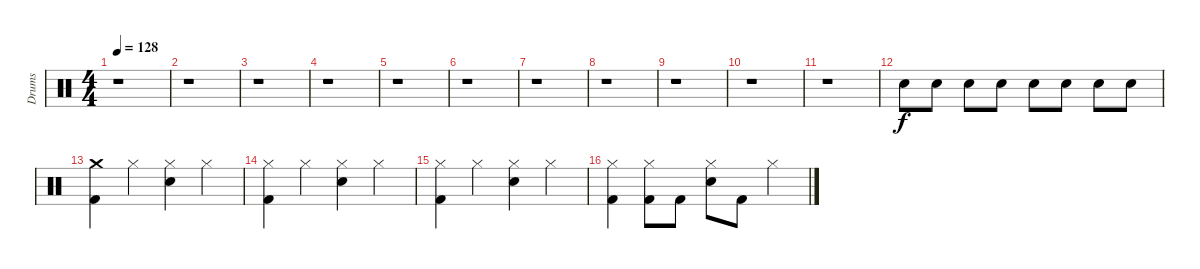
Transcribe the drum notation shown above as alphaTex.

\track ("Drums" "Drums") {instrument percussion}
\staff {score}
\articulation defaults
\ts (4 4)
\tempo 128
\clef neutral
\ks c
r.1{dy f} |
r.1 |
r.1 |
r.1 |
r.1 |
r.1 |
r.1 |
r.1 |
r.1 |
r.1 |
r.1 |
"Snare (hit) 2".8 "Snare (hit) 2".8 "Snare (hit) 2".8 "Snare (hit) 2".8 "Snare (hit) 2".8 "Snare (hit) 2".8 "Snare (hit) 2".8 "Snare (hit) 2".8 |
("Kick (hit) 2" "Crash medium (hit)").4 "Hi-Hat (closed)".4 ("Snare (hit) 2" "Hi-Hat (closed)").4 "Hi-Hat (closed)".4 |
("Kick (hit) 2" "Hi-Hat (closed)").4 "Hi-Hat (closed)".4 ("Snare (hit) 2" "Hi-Hat (closed)").4 "Hi-Hat (closed)".4 |
("Kick (hit) 2" "Hi-Hat (closed)").4 "Hi-Hat (closed)".4 ("Snare (hit) 2" "Hi-Hat (closed)").4 "Hi-Hat (closed)".4 |
("Kick (hit) 2" "Hi-Hat (closed)").4 ("Kick (hit) 2" "Hi-Hat (closed)").8 "Kick (hit) 2".8 ("Snare (hit) 2" "Hi-Hat (closed)").8 "Kick (hit) 2".8 "Hi-Hat (closed)".4
